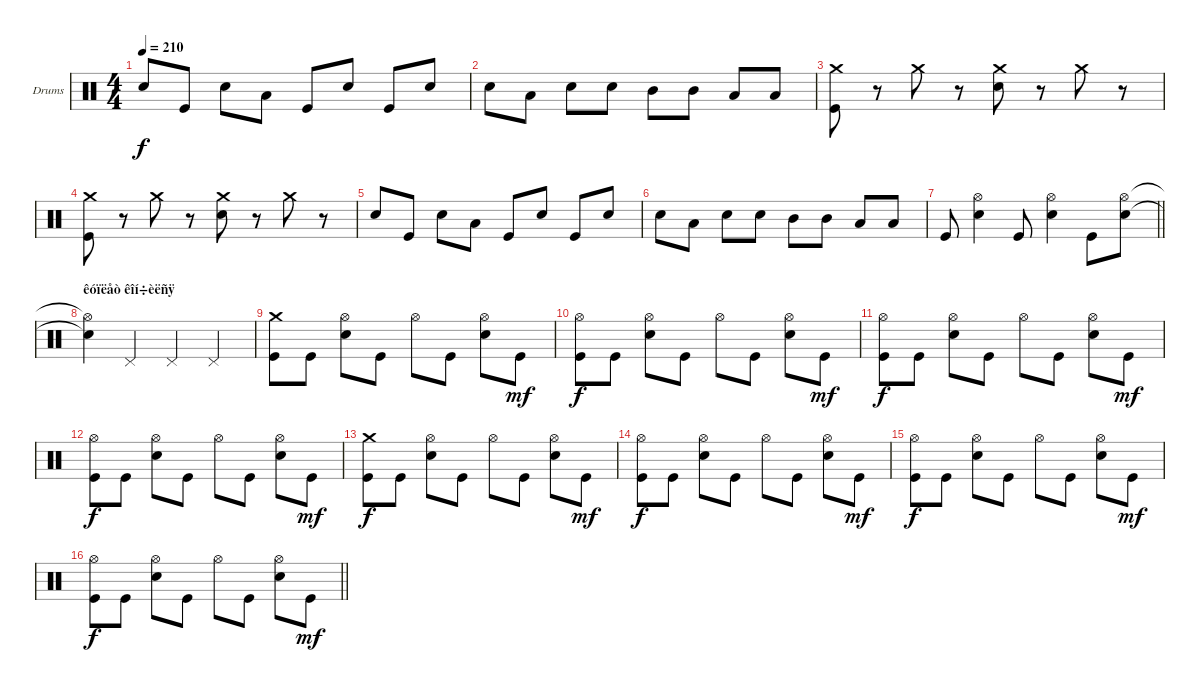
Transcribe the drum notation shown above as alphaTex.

\bracketExtendMode groupsimilarinstruments
\firstSystemTrackNameOrientation horizontal
\otherSystemsTrackNameOrientation horizontal
\track ("Drumkit" "Drums") {instrument percussion}
\staff {score}
\articulation defaults
\ts (4 4)
\tempo 210
\clef neutral
\ks c "Snare (hit) 2".8{dy f} "Kick (hit)".8 "Snare (hit) 2".8 "Low Tom (hit)".8 "Kick (hit)".8 "Snare (hit) 2".8 "Kick (hit)".8 "Snare (hit) 2".8
|
"Snare (hit) 2".8 "Low Tom (hit)".8 "Snare (hit) 2".8 "Snare (hit) 2".8 "Mid Tom (hit)".8 "Mid Tom (hit)".8 "Low Tom (hit)".8 "Low Tom (hit)".8 |
("Crash medium (hit)" "Kick (hit)").8 r.8 "Crash medium (hit)".8 r.8 ("Crash medium (hit)" "Snare (hit) 2").8 r.8 "Crash medium (hit)".8 r.8 |
("Crash medium (hit)" "Kick (hit)").8 r.8 "Crash medium (hit)".8 r.8 ("Crash medium (hit)" "Snare (hit) 2").8 r.8 "Crash medium (hit)".8 r.8 |
"Snare (hit) 2".8 "Kick (hit)".8 "Snare (hit) 2".8 "Low Tom (hit)".8 "Kick (hit)".8 "Snare (hit) 2".8 "Kick (hit)".8 "Snare (hit) 2".8 |
"Snare (hit) 2".8 "Low Tom (hit)".8 "Snare (hit) 2".8 "Snare (hit) 2".8 "Mid Tom (hit)".8 "Mid Tom (hit)".8 "Low Tom (hit)".8 "Low Tom (hit)".8 |
\barLineRight lightlight "Kick (hit)".8
("Hi-Hat (open)" "Snare (hit) 2").4 "Kick (hit)".8 ("Hi-Hat (open)" "Snare (hit) 2").4 "Kick (hit)".8 ("Hi-Hat (open)" "Snare (hit) 2").8 |
\section ("" "êóïëåò êîí÷èëñÿ")
("Hi-Hat (open)"{t} "Snare (hit) 2"{t}).4 "Pedal Hi-Hat (hit)".4 "Pedal Hi-Hat (hit)".4 "Pedal Hi-Hat (hit)".4 |
("Crash medium (hit)" "Kick (hit)").8 "Kick (hit)".8 ("Hi-Hat (open)" "Snare (hit) 2").8 "Kick (hit)".8 "Hi-Hat (open)".8 "Kick (hit)".8 ("Hi-Hat (open)" "Snare (hit) 2").8 "Kick (hit)".8{dy mf} |
("Hi-Hat (open)" "Kick (hit)").8{dy f} "Kick (hit)".8 ("Hi-Hat (open)" "Snare (hit) 2").8 "Kick (hit)".8 "Hi-Hat (open)".8 "Kick (hit)".8 ("Hi-Hat (open)" "Snare (hit) 2").8 "Kick (hit)".8{dy mf} |
("Hi-Hat (open)" "Kick (hit)").8{dy f} "Kick (hit)".8 ("Hi-Hat (open)" "Snare (hit) 2").8 "Kick (hit)".8 "Hi-Hat (open)".8 "Kick (hit)".8 ("Hi-Hat (open)" "Snare (hit) 2").8 "Kick (hit)".8{dy mf} |
("Hi-Hat (open)" "Kick (hit)").8{dy f} "Kick (hit)".8 ("Hi-Hat (open)" "Snare (hit) 2").8 "Kick (hit)".8 "Hi-Hat (open)".8 "Kick (hit)".8 ("Hi-Hat (open)" "Snare (hit) 2").8 "Kick (hit)".8{dy mf} |
("Crash medium (hit)" "Kick (hit)").8{dy f} "Kick (hit)".8 ("Hi-Hat (open)" "Snare (hit) 2").8 "Kick (hit)".8 "Hi-Hat (open)".8 "Kick (hit)".8 ("Hi-Hat (open)" "Snare (hit) 2").8 "Kick (hit)".8{dy mf} |
("Hi-Hat (open)" "Kick (hit)").8{dy f} "Kick (hit)".8 ("Hi-Hat (open)" "Snare (hit) 2").8 "Kick (hit)".8 "Hi-Hat (open)".8 "Kick (hit)".8 ("Hi-Hat (open)" "Snare (hit) 2").8 "Kick (hit)".8{dy mf} |
("Hi-Hat (open)" "Kick (hit)").8{dy f} "Kick (hit)".8 ("Hi-Hat (open)" "Snare (hit) 2").8 "Kick (hit)".8 "Hi-Hat (open)".8 "Kick (hit)".8 ("Hi-Hat (open)" "Snare (hit) 2").8 "Kick (hit)".8{dy mf} |
\barLineRight lightlight
("Hi-Hat (open)" "Kick (hit)").8{dy f} "Kick (hit)".8 ("Hi-Hat (open)" "Snare (hit) 2").8 "Kick (hit)".8 "Hi-Hat (open)".8 "Kick (hit)".8 ("Hi-Hat (open)" "Snare (hit) 2").8 "Kick (hit)".8{dy mf}
